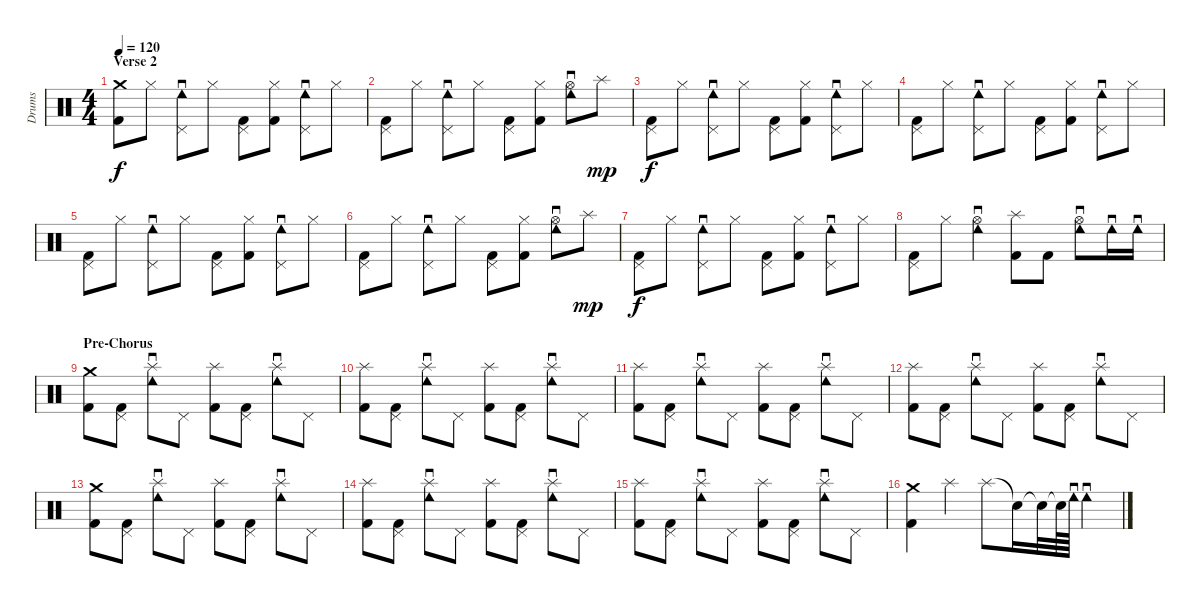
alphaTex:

\track ("Drums" "Drums") {instrument percussion}
\staff {score}
\articulation defaults
\ts (4 4)
\section ("" "Verse 2")
\tempo 120
\clef neutral
\ks c
("Crash medium (hit)" "Kick (hit) 2").8{dy f} "Hi-Hat (closed)".8 ("Tambourine (roll)" "Pedal Hi-Hat (hit)").8 "Hi-Hat (closed)".8 ("Pedal Hi-Hat (hit)" "Kick (hit) 2").8 ("Hi-Hat (closed)" "Kick (hit) 2").8 ("Tambourine (roll)" "Pedal Hi-Hat (hit)").8 "Hi-Hat (closed)".8 |
("Pedal Hi-Hat (hit)" "Kick (hit) 2").8 "Hi-Hat (closed)".8 ("Tambourine (roll)" "Pedal Hi-Hat (hit)").8 "Hi-Hat (closed)".8 ("Pedal Hi-Hat (hit)" "Kick (hit) 2").8 ("Hi-Hat (closed)" "Kick (hit) 2").8 ("Tambourine (roll)" "Hi-Hat (open)").8 "Splash (hit)".8{dy mp} |
("Pedal Hi-Hat (hit)" "Kick (hit) 2").8{dy f} "Hi-Hat (closed)".8 ("Tambourine (roll)" "Pedal Hi-Hat (hit)").8 "Hi-Hat (closed)".8 ("Pedal Hi-Hat (hit)" "Kick (hit) 2").8 ("Hi-Hat (closed)" "Kick (hit) 2").8 ("Tambourine (roll)" "Pedal Hi-Hat (hit)").8 "Hi-Hat (closed)".8 |
("Pedal Hi-Hat (hit)" "Kick (hit) 2").8 "Hi-Hat (closed)".8 ("Tambourine (roll)" "Pedal Hi-Hat (hit)").8 "Hi-Hat (closed)".8 ("Pedal Hi-Hat (hit)" "Kick (hit) 2").8 ("Hi-Hat (closed)" "Kick (hit) 2").8 ("Tambourine (roll)" "Pedal Hi-Hat (hit)").8 "Hi-Hat (closed)".8 |
("Pedal Hi-Hat (hit)" "Kick (hit) 2").8 "Hi-Hat (closed)".8 ("Tambourine (roll)" "Pedal Hi-Hat (hit)").8 "Hi-Hat (closed)".8 ("Pedal Hi-Hat (hit)" "Kick (hit) 2").8 ("Hi-Hat (closed)" "Kick (hit) 2").8 ("Tambourine (roll)" "Pedal Hi-Hat (hit)").8 "Hi-Hat (closed)".8 |
("Pedal Hi-Hat (hit)" "Kick (hit) 2").8 "Hi-Hat (closed)".8 ("Tambourine (roll)" "Pedal Hi-Hat (hit)").8 "Hi-Hat (closed)".8 ("Pedal Hi-Hat (hit)" "Kick (hit) 2").8 ("Hi-Hat (closed)" "Kick (hit) 2").8 ("Tambourine (roll)" "Hi-Hat (open)").8 "Splash (hit)".8{dy mp} |
("Pedal Hi-Hat (hit)" "Kick (hit) 2").8{dy f} "Hi-Hat (closed)".8 ("Tambourine (roll)" "Pedal Hi-Hat (hit)").8 "Hi-Hat (closed)".8 ("Pedal Hi-Hat (hit)" "Kick (hit) 2").8 ("Hi-Hat (closed)" "Kick (hit) 2").8 ("Tambourine (roll)" "Pedal Hi-Hat (hit)").8 "Hi-Hat (closed)".8 |
("Pedal Hi-Hat (hit)" "Kick (hit) 2").8 "Hi-Hat (closed)".8 ("Tambourine (roll)" "Hi-Hat (open)").4 ("Splash (hit)" "Kick (hit) 2").8 "Kick (hit) 2".8 ("Tambourine (roll)" "Hi-Hat (open)").8 "Tambourine (roll)".16 "Tambourine (roll)".16 |
\section ("" "Pre-Chorus")
("Crash medium (hit)" "Kick (hit) 2").8 ("Pedal Hi-Hat (hit)" "Kick (hit) 2").8 ("Tambourine (roll)" "Splash (hit)").8 "Pedal Hi-Hat (hit)".8 ("Splash (hit)" "Kick (hit) 2").8 ("Pedal Hi-Hat (hit)" "Kick (hit) 2").8 ("Tambourine (roll)" "Splash (hit)").8 "Pedal Hi-Hat (hit)".8 |
("Splash (hit)" "Kick (hit) 2").8 ("Pedal Hi-Hat (hit)" "Kick (hit) 2").8 ("Tambourine (roll)" "Splash (hit)").8 "Pedal Hi-Hat (hit)".8 ("Splash (hit)" "Kick (hit) 2").8 ("Pedal Hi-Hat (hit)" "Kick (hit) 2").8 ("Tambourine (roll)" "Splash (hit)").8 "Pedal Hi-Hat (hit)".8 |
("Splash (hit)" "Kick (hit) 2").8 ("Pedal Hi-Hat (hit)" "Kick (hit) 2").8 ("Tambourine (roll)" "Splash (hit)").8 "Pedal Hi-Hat (hit)".8 ("Splash (hit)" "Kick (hit) 2").8 ("Pedal Hi-Hat (hit)" "Kick (hit) 2").8 ("Tambourine (roll)" "Splash (hit)").8 "Pedal Hi-Hat (hit)".8 |
("Splash (hit)" "Kick (hit) 2").8 ("Pedal Hi-Hat (hit)" "Kick (hit) 2").8 ("Tambourine (roll)" "Splash (hit)").8 "Pedal Hi-Hat (hit)".8 ("Splash (hit)" "Kick (hit) 2").8 ("Pedal Hi-Hat (hit)" "Kick (hit) 2").8 ("Tambourine (roll)" "Splash (hit)").8 "Pedal Hi-Hat (hit)".8 |
("Crash medium (hit)" "Kick (hit) 2").8 ("Pedal Hi-Hat (hit)" "Kick (hit) 2").8 ("Tambourine (roll)" "Splash (hit)").8 "Pedal Hi-Hat (hit)".8 ("Splash (hit)" "Kick (hit) 2").8 ("Pedal Hi-Hat (hit)" "Kick (hit) 2").8 ("Tambourine (roll)" "Splash (hit)").8 "Pedal Hi-Hat (hit)".8 |
("Splash (hit)" "Kick (hit) 2").8 ("Pedal Hi-Hat (hit)" "Kick (hit) 2").8 ("Tambourine (roll)" "Splash (hit)").8 "Pedal Hi-Hat (hit)".8 ("Splash (hit)" "Kick (hit) 2").8 ("Pedal Hi-Hat (hit)" "Kick (hit) 2").8 ("Tambourine (roll)" "Splash (hit)").8 "Pedal Hi-Hat (hit)".8 |
("Splash (hit)" "Kick (hit) 2").8 ("Pedal Hi-Hat (hit)" "Kick (hit) 2").8 ("Tambourine (roll)" "Splash (hit)").8 "Pedal Hi-Hat (hit)".8 ("Splash (hit)" "Kick (hit) 2").8 ("Pedal Hi-Hat (hit)" "Kick (hit) 2").8 ("Tambourine (roll)" "Splash (hit)").8 "Pedal Hi-Hat (hit)".8 |
("Crash medium (hit)" "Kick (hit) 2").4 "Splash (hit)".4 "Splash (hit)".8 "Snare (hit)"{t}.16 "Snare (hit)"{t}.32 "Snare (hit)"{t}.64 "Tambourine (roll)".64 "Tambourine (roll)".4
